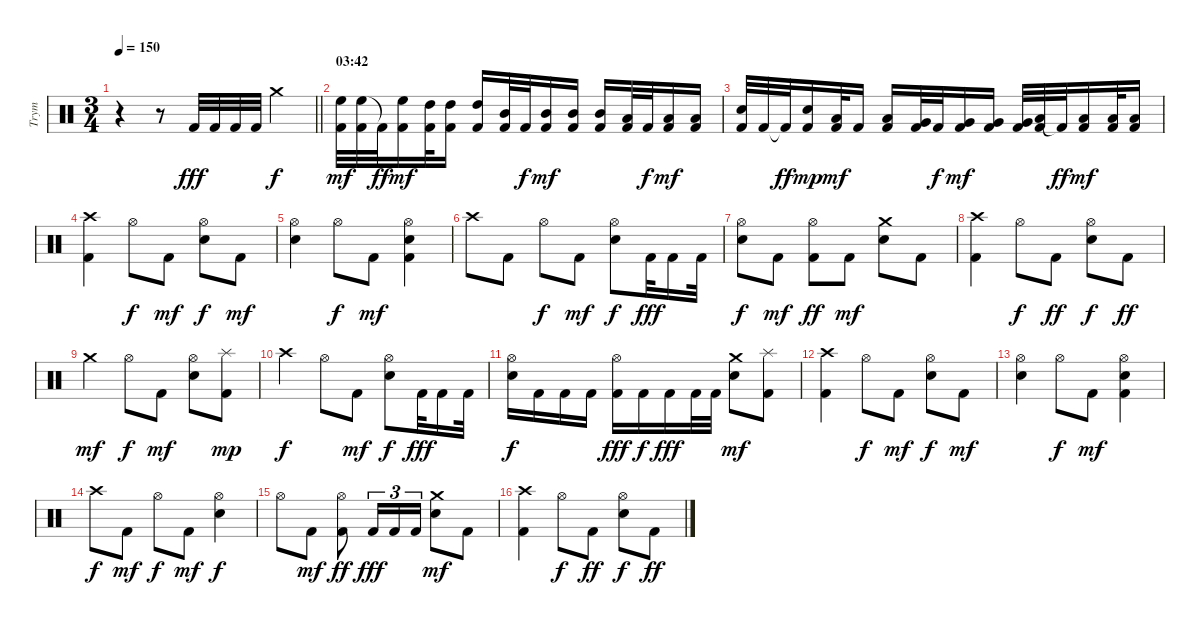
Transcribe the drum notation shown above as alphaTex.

\track ("Trym" "Trym") {instrument percussion}
\staff {score}
\articulation defaults
\ts (3 4)
\tempo 150
\clef neutral
\barLineRight lightlight
\ks c
r.4{dy mf} r.8 "Kick (hit) 2".32{dy fff} "Kick (hit) 2".32 "Kick (hit) 2".32 "Kick (hit) 2".32 "Crash medium (hit)".4{dy f} |
\section ("" "03:42")
("High Floor Tom (hit)" "Kick (hit) 2").32{dy mf} ("High Floor Tom (hit)" "Kick (hit) 2").32 "Kick (hit) 2"{t}.32{dy ff} ("High Floor Tom (hit)" "Kick (hit) 2").16{dy mf} ("High Tom (hit)" "Kick (hit) 2").32 ("High Tom (hit)" "Kick (hit) 2").16 ("High Tom (hit)" "Kick (hit) 2").16 ("Mid Tom (hit)" "Kick (hit) 2").32 "Kick (hit) 2".32{dy f} ("Mid Tom (hit)" "Kick (hit) 2").16{dy mf} ("Mid Tom (hit)" "Kick (hit) 2").16 ("Mid Tom (hit)" "Kick (hit) 2").16 ("Low Tom (hit)" "Kick (hit) 2").32 "Kick (hit) 2".32{dy f} ("Low Tom (hit)" "Kick (hit) 2").16{dy mf} ("Low Tom (hit)" "Kick (hit) 2").16 |
("Snare (hit) 2" "Kick (hit) 2").32 "Kick (hit) 2".32 "Kick (hit) 2"{t}.32{dy ff} ("Snare (hit) 2" "Kick (hit) 2").16{dy mp} ("Low Tom (hit)" "Kick (hit) 2").32{dy mf} "Kick (hit) 2".16 ("Low Tom (hit)" "Kick (hit) 2").16 ("Very Low Tom (hit)" "Kick (hit) 2").32 "Kick (hit) 2".32{dy f} ("Very Low Tom (hit)" "Kick (hit) 2").16{dy mf} ("Very Low Tom (hit)" "Kick (hit) 2").16 ("Very Low Tom (hit)" "Kick (hit) 2").32 ("Low Floor Tom (hit)" "Kick (hit) 2").32 "Kick (hit) 2"{t}.32{dy ff} ("Low Floor Tom (hit)" "Kick (hit) 2").16{dy mf} ("Low Floor Tom (hit)" "Kick (hit) 2").32 ("Low Floor Tom (hit)" "Kick (hit) 2").16 |
("Crash high (hit)" "Kick (hit) 2").4 "Hi-Hat (open)".8{dy f} "Kick (hit) 2".8{dy mf} ("Snare (hit) 2" "Hi-Hat (open)").8{dy f} "Kick (hit) 2".8{dy mf} |
("Snare (hit) 2" "Hi-Hat (open)").4 "Hi-Hat (open)".8{dy f} "Kick (hit) 2".8{dy mf} ("Snare (hit) 2" "Hi-Hat (open)" "Kick (hit) 2").4 |
"Crash high (hit)".8 "Kick (hit) 2".8 "Hi-Hat (open)".8{dy f} "Kick (hit) 2".8{dy mf} ("Snare (hit) 2" "Hi-Hat (open)").8{dy f} "Kick (hit) 2".32{dy fff} "Kick (hit) 2".16 "Kick (hit) 2".32 |
("Snare (hit) 2" "Hi-Hat (open)").8{dy f} "Kick (hit) 2".8{dy mf} ("Hi-Hat (open)" "Kick (hit) 2").8{dy ff} "Kick (hit) 2".8{dy mf} ("Snare (hit) 2" "Crash medium (hit)").8 "Kick (hit) 2".8 |
("Crash high (hit)" "Kick (hit) 2").4 "Hi-Hat (open)".8{dy f} "Kick (hit) 2".8{dy ff} ("Snare (hit) 2" "Hi-Hat (open)").8{dy f} "Kick (hit) 2".8{dy ff} |
"Crash medium (hit)".4{dy mf} "Hi-Hat (open)".8{dy f} "Kick (hit) 2".8{dy mf} ("Snare (hit) 2" "Hi-Hat (open)").8 ("Splash (hit)" "Kick (hit) 2").8{dy mp} |
"Crash high (hit)".4{dy f} "Hi-Hat (open)".8 "Kick (hit) 2".8{dy mf} ("Snare (hit) 2" "Hi-Hat (open)").8{dy f} "Kick (hit) 2".32{dy fff} "Kick (hit) 2".16 "Kick (hit) 2".32 |
("Snare (hit) 2" "Hi-Hat (open)").16{dy f} "Kick (hit) 2".16 "Kick (hit) 2".16 "Kick (hit) 2".16 ("Hi-Hat (open)" "Kick (hit) 2").16{dy fff} "Kick (hit) 2".16{dy f} "Kick (hit) 2".16{dy fff} "Kick (hit) 2".32 "Kick (hit) 2".32 ("Snare (hit) 2" "Crash medium (hit)").8{dy mf} ("Splash (hit)" "Kick (hit) 2").8 |
("Crash high (hit)" "Kick (hit) 2").4 "Hi-Hat (open)".8{dy f} "Kick (hit) 2".8{dy mf} ("Snare (hit) 2" "Hi-Hat (open)").8{dy f} "Kick (hit) 2".8{dy mf} |
("Snare (hit) 2" "Hi-Hat (open)").4 "Hi-Hat (open)".8{dy f} "Kick (hit) 2".8{dy mf} ("Snare (hit) 2" "Hi-Hat (open)" "Kick (hit) 2").4 |
"Crash high (hit)".8{dy f} "Kick (hit) 2".8{dy mf} "Hi-Hat (open)".8{dy f} "Kick (hit) 2".8{dy mf} ("Snare (hit) 2" "Hi-Hat (open)").4{dy f} |
"Hi-Hat (open)".8 "Kick (hit) 2".8{dy mf} ("Hi-Hat (open)" "Kick (hit) 2").8{dy ff} "Kick (hit) 2".16{tu (3 2) dy fff} "Kick (hit) 2".16{tu (3 2)} "Kick (hit) 2".16{tu (3 2)} ("Snare (hit) 2" "Crash medium (hit)").8{dy mf} "Kick (hit) 2".8 |
("Crash high (hit)" "Kick (hit) 2").4 "Hi-Hat (open)".8{dy f} "Kick (hit) 2".8{dy ff} ("Snare (hit) 2" "Hi-Hat (open)").8{dy f} "Kick (hit) 2".8{dy ff}
